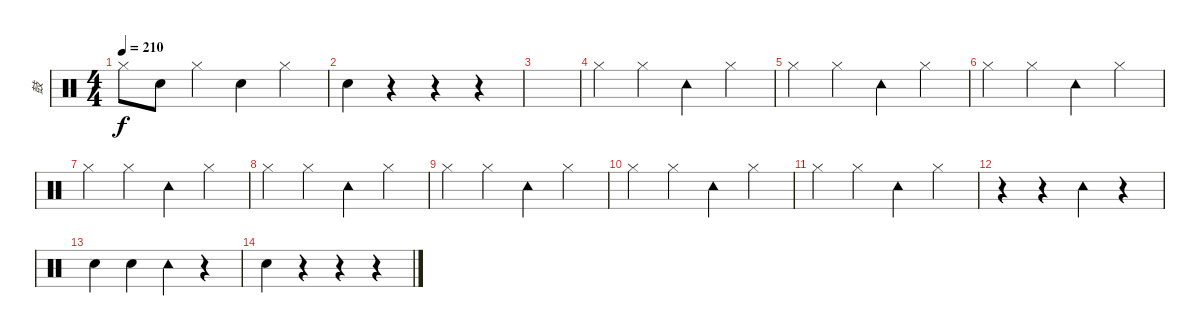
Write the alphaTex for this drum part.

\track ("鼓" "鼓") {instrument percussion}
\staff {score}
\articulation defaults
\ts (4 4)
\tempo 210
\clef neutral
\ks c "Hi-Hat (closed)".8{dy f} "Electric Snare (hit)".8 "Hi-Hat (closed)".4 "Electric Snare (hit)".4 "Hi-Hat (closed)".4
|
"Electric Snare (hit)".4 r.4 r.4 r.4 |
|
"Hi-Hat (closed)".4 "Hi-Hat (closed)".4 "Tambourine (hit)".4 "Hi-Hat (closed)".4 |
"Hi-Hat (closed)".4 "Hi-Hat (closed)".4 "Tambourine (hit)".4 "Hi-Hat (closed)".4 |
"Hi-Hat (closed)".4 "Hi-Hat (closed)".4 "Tambourine (hit)".4 "Hi-Hat (closed)".4 |
"Hi-Hat (closed)".4 "Hi-Hat (closed)".4 "Tambourine (hit)".4 "Hi-Hat (closed)".4 |
"Hi-Hat (closed)".4 "Hi-Hat (closed)".4 "Tambourine (hit)".4 "Hi-Hat (closed)".4 |
"Hi-Hat (closed)".4 "Hi-Hat (closed)".4 "Tambourine (hit)".4 "Hi-Hat (closed)".4 |
"Hi-Hat (closed)".4 "Hi-Hat (closed)".4 "Tambourine (hit)".4 "Hi-Hat (closed)".4 |
"Hi-Hat (closed)".4 "Hi-Hat (closed)".4 "Tambourine (hit)".4 "Hi-Hat (closed)".4 |
r.4 r.4 "Tambourine (hit)".4 r.4 |
"Electric Snare (hit)".4 "Electric Snare (hit)".4 "Tambourine (hit)".4 r.4 |
"Electric Snare (hit)".4 r.4 r.4 r.4
